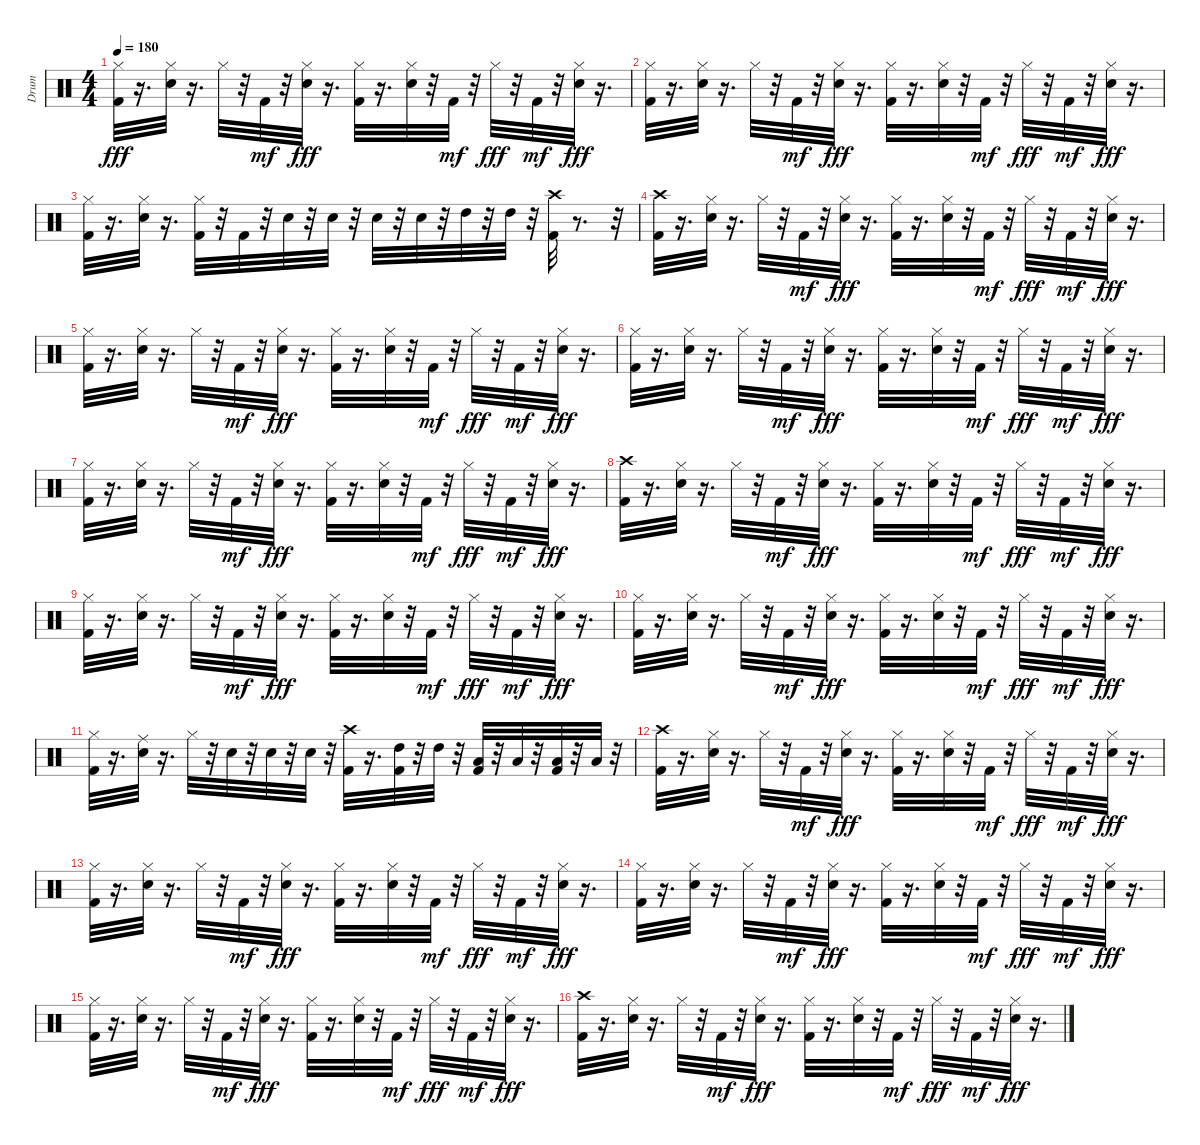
\track ("Drum" "Drum") {instrument percussion}
\staff {score}
\articulation defaults
\ts (4 4)
\tempo 180
\clef neutral
\ks c
("Kick (hit) 2" "Hi-Hat (closed)").32{dy fff} r.16{d} ("Hi-Hat (closed)" "Snare (hit) 2").32 r.16{d} "Hi-Hat (closed)".32 r.32 "Kick (hit) 2".32{dy mf} r.32 ("Hi-Hat (closed)" "Snare (hit) 2").32{dy fff} r.16{d} ("Kick (hit) 2" "Hi-Hat (closed)").32 r.16{d} ("Hi-Hat (closed)" "Snare (hit) 2").32 r.32 "Kick (hit) 2".32{dy mf} r.32 "Hi-Hat (closed)".32{dy fff} r.32 "Kick (hit) 2".32{dy mf} r.32 ("Hi-Hat (closed)" "Snare (hit) 2").32{dy fff} r.16{d} |
("Kick (hit) 2" "Hi-Hat (closed)").32 r.16{d} ("Hi-Hat (closed)" "Snare (hit) 2").32 r.16{d} "Hi-Hat (closed)".32 r.32 "Kick (hit) 2".32{dy mf} r.32 ("Hi-Hat (closed)" "Snare (hit) 2").32{dy fff} r.16{d} ("Kick (hit) 2" "Hi-Hat (closed)").32 r.16{d} ("Hi-Hat (closed)" "Snare (hit) 2").32 r.32 "Kick (hit) 2".32{dy mf} r.32 "Hi-Hat (closed)".32{dy fff} r.32 "Kick (hit) 2".32{dy mf} r.32 ("Hi-Hat (closed)" "Snare (hit) 2").32{dy fff} r.16{d} |
("Kick (hit) 2" "Hi-Hat (closed)").32 r.16{d} ("Snare (hit) 2" "Hi-Hat (closed)").32 r.16{d} ("Kick (hit) 2" "Hi-Hat (closed)").32 r.32 "Kick (hit) 2".32 r.32 "Snare (hit) 2".32 r.32 "Snare (hit) 2".32 r.32 "Snare (hit) 2".32 r.32 "Snare (hit) 2".32 r.32 "High Tom (hit)".32 r.32 "High Tom (hit)".32 r.32 ("Kick (hit) 2" "Crash high (hit)").32 r.8{d} r.32 |
("Kick (hit) 2" "Crash high (hit)").32 r.16{d} ("Hi-Hat (closed)" "Snare (hit) 2").32 r.16{d} "Hi-Hat (closed)".32 r.32 "Kick (hit) 2".32{dy mf} r.32 ("Hi-Hat (closed)" "Snare (hit) 2").32{dy fff} r.16{d} ("Kick (hit) 2" "Hi-Hat (closed)").32 r.16{d} ("Hi-Hat (closed)" "Snare (hit) 2").32 r.32 "Kick (hit) 2".32{dy mf} r.32 "Hi-Hat (closed)".32{dy fff} r.32 "Kick (hit) 2".32{dy mf} r.32 ("Hi-Hat (closed)" "Snare (hit) 2").32{dy fff} r.16{d} |
("Kick (hit) 2" "Hi-Hat (closed)").32 r.16{d} ("Hi-Hat (closed)" "Snare (hit) 2").32 r.16{d} "Hi-Hat (closed)".32 r.32 "Kick (hit) 2".32{dy mf} r.32 ("Hi-Hat (closed)" "Snare (hit) 2").32{dy fff} r.16{d} ("Kick (hit) 2" "Hi-Hat (closed)").32 r.16{d} ("Hi-Hat (closed)" "Snare (hit) 2").32 r.32 "Kick (hit) 2".32{dy mf} r.32 "Hi-Hat (closed)".32{dy fff} r.32 "Kick (hit) 2".32{dy mf} r.32 ("Hi-Hat (closed)" "Snare (hit) 2").32{dy fff} r.16{d} |
("Kick (hit) 2" "Hi-Hat (closed)").32 r.16{d} ("Hi-Hat (closed)" "Snare (hit) 2").32 r.16{d} "Hi-Hat (closed)".32 r.32 "Kick (hit) 2".32{dy mf} r.32 ("Hi-Hat (closed)" "Snare (hit) 2").32{dy fff} r.16{d} ("Kick (hit) 2" "Hi-Hat (closed)").32 r.16{d} ("Hi-Hat (closed)" "Snare (hit) 2").32 r.32 "Kick (hit) 2".32{dy mf} r.32 "Hi-Hat (closed)".32{dy fff} r.32 "Kick (hit) 2".32{dy mf} r.32 ("Hi-Hat (closed)" "Snare (hit) 2").32{dy fff} r.16{d} |
("Kick (hit) 2" "Hi-Hat (closed)").32 r.16{d} ("Hi-Hat (closed)" "Snare (hit) 2").32 r.16{d} "Hi-Hat (closed)".32 r.32 "Kick (hit) 2".32{dy mf} r.32 ("Hi-Hat (closed)" "Snare (hit) 2").32{dy fff} r.16{d} ("Kick (hit) 2" "Hi-Hat (closed)").32 r.16{d} ("Hi-Hat (closed)" "Snare (hit) 2").32 r.32 "Kick (hit) 2".32{dy mf} r.32 "Hi-Hat (closed)".32{dy fff} r.32 "Kick (hit) 2".32{dy mf} r.32 ("Hi-Hat (closed)" "Snare (hit) 2").32{dy fff} r.16{d} |
("Kick (hit) 2" "Crash high (hit)").32 r.16{d} ("Hi-Hat (closed)" "Snare (hit) 2").32 r.16{d} "Hi-Hat (closed)".32 r.32 "Kick (hit) 2".32{dy mf} r.32 ("Hi-Hat (closed)" "Snare (hit) 2").32{dy fff} r.16{d} ("Kick (hit) 2" "Hi-Hat (closed)").32 r.16{d} ("Hi-Hat (closed)" "Snare (hit) 2").32 r.32 "Kick (hit) 2".32{dy mf} r.32 "Hi-Hat (closed)".32{dy fff} r.32 "Kick (hit) 2".32{dy mf} r.32 ("Hi-Hat (closed)" "Snare (hit) 2").32{dy fff} r.16{d} |
("Kick (hit) 2" "Hi-Hat (closed)").32 r.16{d} ("Hi-Hat (closed)" "Snare (hit) 2").32 r.16{d} "Hi-Hat (closed)".32 r.32 "Kick (hit) 2".32{dy mf} r.32 ("Hi-Hat (closed)" "Snare (hit) 2").32{dy fff} r.16{d} ("Kick (hit) 2" "Hi-Hat (closed)").32 r.16{d} ("Hi-Hat (closed)" "Snare (hit) 2").32 r.32 "Kick (hit) 2".32{dy mf} r.32 "Hi-Hat (closed)".32{dy fff} r.32 "Kick (hit) 2".32{dy mf} r.32 ("Hi-Hat (closed)" "Snare (hit) 2").32{dy fff} r.16{d} |
("Kick (hit) 2" "Hi-Hat (closed)").32 r.16{d} ("Hi-Hat (closed)" "Snare (hit) 2").32 r.16{d} "Hi-Hat (closed)".32 r.32 "Kick (hit) 2".32{dy mf} r.32 ("Hi-Hat (closed)" "Snare (hit) 2").32{dy fff} r.16{d} ("Kick (hit) 2" "Hi-Hat (closed)").32 r.16{d} ("Hi-Hat (closed)" "Snare (hit) 2").32 r.32 "Kick (hit) 2".32{dy mf} r.32 "Hi-Hat (closed)".32{dy fff} r.32 "Kick (hit) 2".32{dy mf} r.32 ("Hi-Hat (closed)" "Snare (hit) 2").32{dy fff} r.16{d} |
("Kick (hit) 2" "Hi-Hat (closed)").32 r.16{d} ("Snare (hit) 2" "Ride (middle)").32 r.16{d} "Hi-Hat (closed)".32 r.32 "Snare (hit) 2".32 r.32 "Snare (hit) 2".32 r.32 "Snare (hit) 2".32 r.32 ("Kick (hit) 2" "Crash high (hit)").32 r.16{d} ("Kick (hit) 2" "High Tom (hit)").32 r.32 "High Tom (hit)".32 r.32 ("Kick (hit) 2" "Low Tom (hit)").32 r.32 "Low Tom (hit)".32 r.32 ("Kick (hit) 2" "Low Floor Tom (hit)").32 r.32 "Low Floor Tom (hit)".32 r.32 |
("Kick (hit) 2" "Crash high (hit)").32 r.16{d} ("Hi-Hat (closed)" "Snare (hit) 2").32 r.16{d} "Hi-Hat (closed)".32 r.32 "Kick (hit) 2".32{dy mf} r.32 ("Hi-Hat (closed)" "Snare (hit) 2").32{dy fff} r.16{d} ("Kick (hit) 2" "Hi-Hat (closed)").32 r.16{d} ("Hi-Hat (closed)" "Snare (hit) 2").32 r.32 "Kick (hit) 2".32{dy mf} r.32 "Hi-Hat (closed)".32{dy fff} r.32 "Kick (hit) 2".32{dy mf} r.32 ("Hi-Hat (closed)" "Snare (hit) 2").32{dy fff} r.16{d} |
("Kick (hit) 2" "Hi-Hat (closed)").32 r.16{d} ("Hi-Hat (closed)" "Snare (hit) 2").32 r.16{d} "Hi-Hat (closed)".32 r.32 "Kick (hit) 2".32{dy mf} r.32 ("Hi-Hat (closed)" "Snare (hit) 2").32{dy fff} r.16{d} ("Kick (hit) 2" "Hi-Hat (closed)").32 r.16{d} ("Hi-Hat (closed)" "Snare (hit) 2").32 r.32 "Kick (hit) 2".32{dy mf} r.32 "Hi-Hat (closed)".32{dy fff} r.32 "Kick (hit) 2".32{dy mf} r.32 ("Hi-Hat (closed)" "Snare (hit) 2").32{dy fff} r.16{d} |
("Kick (hit) 2" "Hi-Hat (closed)").32 r.16{d} ("Hi-Hat (closed)" "Snare (hit) 2").32 r.16{d} "Hi-Hat (closed)".32 r.32 "Kick (hit) 2".32{dy mf} r.32 ("Hi-Hat (closed)" "Snare (hit) 2").32{dy fff} r.16{d} ("Kick (hit) 2" "Hi-Hat (closed)").32 r.16{d} ("Hi-Hat (closed)" "Snare (hit) 2").32 r.32 "Kick (hit) 2".32{dy mf} r.32 "Hi-Hat (closed)".32{dy fff} r.32 "Kick (hit) 2".32{dy mf} r.32 ("Hi-Hat (closed)" "Snare (hit) 2").32{dy fff} r.16{d} |
("Kick (hit) 2" "Hi-Hat (closed)").32 r.16{d} ("Hi-Hat (closed)" "Snare (hit) 2").32 r.16{d} "Hi-Hat (closed)".32 r.32 "Kick (hit) 2".32{dy mf} r.32 ("Hi-Hat (closed)" "Snare (hit) 2").32{dy fff} r.16{d} ("Kick (hit) 2" "Hi-Hat (closed)").32 r.16{d} ("Hi-Hat (closed)" "Snare (hit) 2").32 r.32 "Kick (hit) 2".32{dy mf} r.32 "Hi-Hat (closed)".32{dy fff} r.32 "Kick (hit) 2".32{dy mf} r.32 ("Hi-Hat (closed)" "Snare (hit) 2").32{dy fff} r.16{d} |
("Kick (hit) 2" "Crash high (hit)").32 r.16{d} ("Hi-Hat (closed)" "Snare (hit) 2").32 r.16{d} "Hi-Hat (closed)".32 r.32 "Kick (hit) 2".32{dy mf} r.32 ("Hi-Hat (closed)" "Snare (hit) 2").32{dy fff} r.16{d} ("Kick (hit) 2" "Hi-Hat (closed)").32 r.16{d} ("Hi-Hat (closed)" "Snare (hit) 2").32 r.32 "Kick (hit) 2".32{dy mf} r.32 "Hi-Hat (closed)".32{dy fff} r.32 "Kick (hit) 2".32{dy mf} r.32 ("Hi-Hat (closed)" "Snare (hit) 2").32{dy fff} r.16{d}
